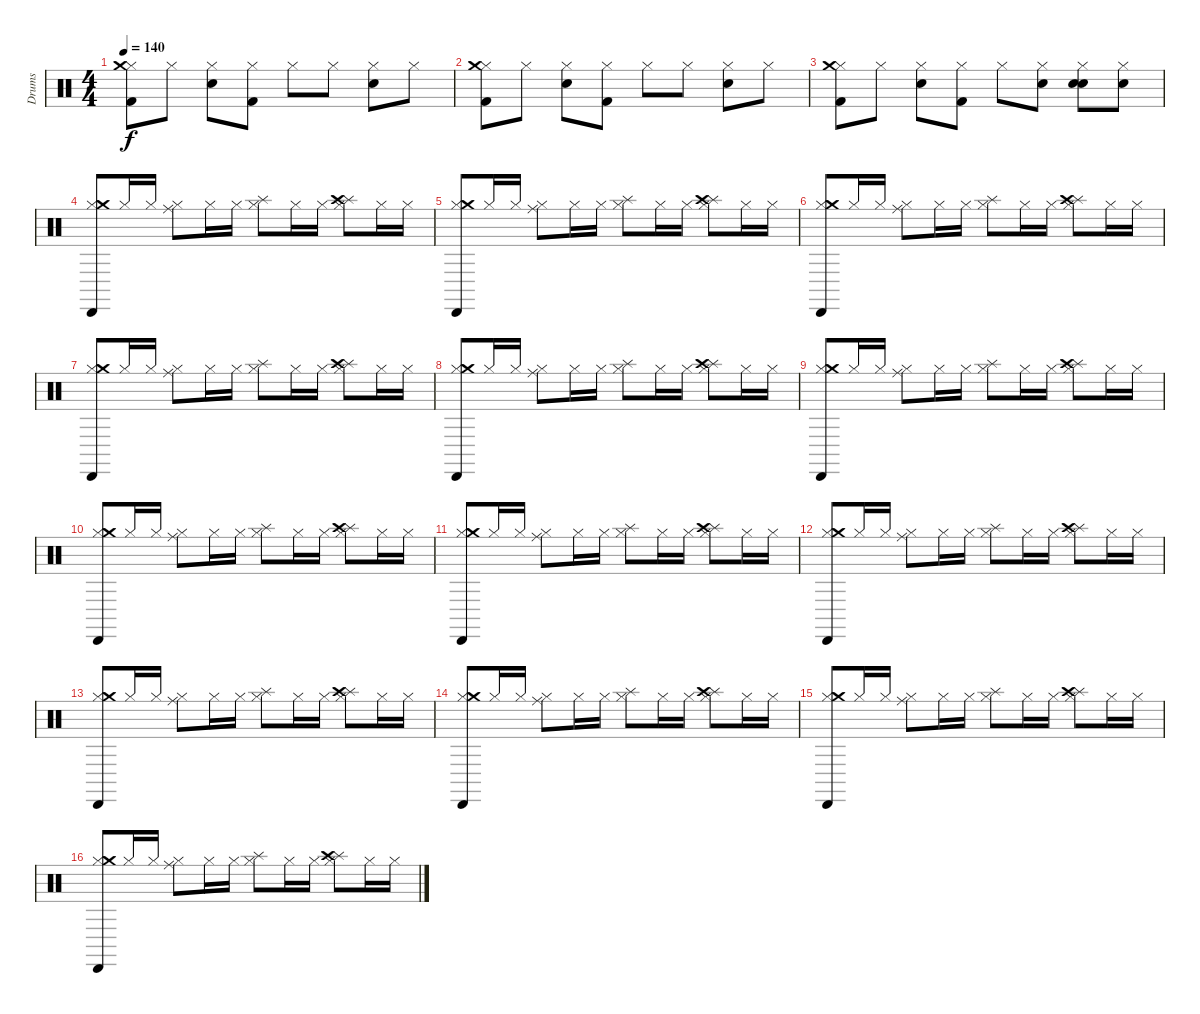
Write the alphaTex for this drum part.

\track ("Drums" "Drums") {instrument percussion}
\staff {score}
\articulation defaults
\ts (4 4)
\tempo 140
\clef neutral
\ks c
("Hi-Hat (closed)" "Kick (hit) 2" "Crash medium (hit)").8{dy f} "Hi-Hat (closed)".8 ("Hi-Hat (closed)" "Electric Snare (hit)").8 ("Hi-Hat (closed)" "Kick (hit) 2").8 "Hi-Hat (closed)".8 "Hi-Hat (closed)".8 ("Hi-Hat (closed)" "Electric Snare (hit)").8 "Hi-Hat (closed)".8 |
("Hi-Hat (closed)" "Kick (hit) 2" "Crash medium (hit)").8 "Hi-Hat (closed)".8 ("Hi-Hat (closed)" "Electric Snare (hit)").8 ("Hi-Hat (closed)" "Kick (hit) 2").8 "Hi-Hat (closed)".8 "Hi-Hat (closed)".8 ("Hi-Hat (closed)" "Electric Snare (hit)").8 "Hi-Hat (closed)".8 |
("Hi-Hat (closed)" "Kick (hit) 2" "Crash medium (hit)").8 "Hi-Hat (closed)".8 ("Hi-Hat (closed)" "Electric Snare (hit)").8 ("Hi-Hat (closed)" "Kick (hit) 2").8 "Hi-Hat (closed)".8 ("Hi-Hat (closed)" "Snare (hit) 2").8 ("Hi-Hat (closed)" "Electric Snare (hit)" "Snare (hit) 2").8 ("Hi-Hat (closed)" "Snare (hit) 2").8 |
("Hi-Hat (closed)" "Cabasa (hit)" "Crash medium (hit)").8 "Hi-Hat (closed)".16 "Hi-Hat (closed)".16 ("Hi-Hat (closed)" "Ride (middle)").8 "Hi-Hat (closed)".16 "Hi-Hat (closed)".16 ("Hi-Hat (closed)" "Splash (hit)").8 "Hi-Hat (closed)".16 "Hi-Hat (closed)".16 ("Hi-Hat (closed)" "Splash (hit)" "Crash high (hit)").8 "Hi-Hat (closed)".16 "Hi-Hat (closed)".16 |
("Hi-Hat (closed)" "Cabasa (hit)" "Crash medium (hit)").8 "Hi-Hat (closed)".16 "Hi-Hat (closed)".16 ("Hi-Hat (closed)" "Ride (middle)").8 "Hi-Hat (closed)".16 "Hi-Hat (closed)".16 ("Hi-Hat (closed)" "Splash (hit)").8 "Hi-Hat (closed)".16 "Hi-Hat (closed)".16 ("Hi-Hat (closed)" "Splash (hit)" "Crash high (hit)").8 "Hi-Hat (closed)".16 "Hi-Hat (closed)".16 |
("Hi-Hat (closed)" "Cabasa (hit)" "Crash medium (hit)").8 "Hi-Hat (closed)".16 "Hi-Hat (closed)".16 ("Hi-Hat (closed)" "Ride (middle)").8 "Hi-Hat (closed)".16 "Hi-Hat (closed)".16 ("Hi-Hat (closed)" "Splash (hit)").8 "Hi-Hat (closed)".16 "Hi-Hat (closed)".16 ("Hi-Hat (closed)" "Splash (hit)" "Crash high (hit)").8 "Hi-Hat (closed)".16 "Hi-Hat (closed)".16 |
("Hi-Hat (closed)" "Cabasa (hit)" "Crash medium (hit)").8 "Hi-Hat (closed)".16 "Hi-Hat (closed)".16 ("Hi-Hat (closed)" "Ride (middle)").8 "Hi-Hat (closed)".16 "Hi-Hat (closed)".16 ("Hi-Hat (closed)" "Splash (hit)").8 "Hi-Hat (closed)".16 "Hi-Hat (closed)".16 ("Hi-Hat (closed)" "Splash (hit)" "Crash high (hit)").8 "Hi-Hat (closed)".16 "Hi-Hat (closed)".16 |
("Hi-Hat (closed)" "Cabasa (hit)" "Crash medium (hit)").8 "Hi-Hat (closed)".16 "Hi-Hat (closed)".16 ("Hi-Hat (closed)" "Ride (middle)").8 "Hi-Hat (closed)".16 "Hi-Hat (closed)".16 ("Hi-Hat (closed)" "Splash (hit)").8 "Hi-Hat (closed)".16 "Hi-Hat (closed)".16 ("Hi-Hat (closed)" "Splash (hit)" "Crash high (hit)").8 "Hi-Hat (closed)".16 "Hi-Hat (closed)".16 |
("Hi-Hat (closed)" "Cabasa (hit)" "Crash medium (hit)").8 "Hi-Hat (closed)".16 "Hi-Hat (closed)".16 ("Hi-Hat (closed)" "Ride (middle)").8 "Hi-Hat (closed)".16 "Hi-Hat (closed)".16 ("Hi-Hat (closed)" "Splash (hit)").8 "Hi-Hat (closed)".16 "Hi-Hat (closed)".16 ("Hi-Hat (closed)" "Splash (hit)" "Crash high (hit)").8 "Hi-Hat (closed)".16 "Hi-Hat (closed)".16 |
("Hi-Hat (closed)" "Cabasa (hit)" "Crash medium (hit)").8 "Hi-Hat (closed)".16 "Hi-Hat (closed)".16 ("Hi-Hat (closed)" "Ride (middle)").8 "Hi-Hat (closed)".16 "Hi-Hat (closed)".16 ("Hi-Hat (closed)" "Splash (hit)").8 "Hi-Hat (closed)".16 "Hi-Hat (closed)".16 ("Hi-Hat (closed)" "Splash (hit)" "Crash high (hit)").8 "Hi-Hat (closed)".16 "Hi-Hat (closed)".16 |
("Hi-Hat (closed)" "Cabasa (hit)" "Crash medium (hit)").8 "Hi-Hat (closed)".16 "Hi-Hat (closed)".16 ("Hi-Hat (closed)" "Ride (middle)").8 "Hi-Hat (closed)".16 "Hi-Hat (closed)".16 ("Hi-Hat (closed)" "Splash (hit)").8 "Hi-Hat (closed)".16 "Hi-Hat (closed)".16 ("Hi-Hat (closed)" "Splash (hit)" "Crash high (hit)").8 "Hi-Hat (closed)".16 "Hi-Hat (closed)".16 |
("Hi-Hat (closed)" "Cabasa (hit)" "Crash medium (hit)").8 "Hi-Hat (closed)".16 "Hi-Hat (closed)".16 ("Hi-Hat (closed)" "Ride (middle)").8 "Hi-Hat (closed)".16 "Hi-Hat (closed)".16 ("Hi-Hat (closed)" "Splash (hit)").8 "Hi-Hat (closed)".16 "Hi-Hat (closed)".16 ("Hi-Hat (closed)" "Splash (hit)" "Crash high (hit)").8 "Hi-Hat (closed)".16 "Hi-Hat (closed)".16 |
("Hi-Hat (closed)" "Cabasa (hit)" "Crash medium (hit)").8 "Hi-Hat (closed)".16 "Hi-Hat (closed)".16 ("Hi-Hat (closed)" "Ride (middle)").8 "Hi-Hat (closed)".16 "Hi-Hat (closed)".16 ("Hi-Hat (closed)" "Splash (hit)").8 "Hi-Hat (closed)".16 "Hi-Hat (closed)".16 ("Hi-Hat (closed)" "Splash (hit)" "Crash high (hit)").8 "Hi-Hat (closed)".16 "Hi-Hat (closed)".16 |
("Hi-Hat (closed)" "Cabasa (hit)" "Crash medium (hit)").8 "Hi-Hat (closed)".16 "Hi-Hat (closed)".16 ("Hi-Hat (closed)" "Ride (middle)").8 "Hi-Hat (closed)".16 "Hi-Hat (closed)".16 ("Hi-Hat (closed)" "Splash (hit)").8 "Hi-Hat (closed)".16 "Hi-Hat (closed)".16 ("Hi-Hat (closed)" "Splash (hit)" "Crash high (hit)").8 "Hi-Hat (closed)".16 "Hi-Hat (closed)".16 |
("Hi-Hat (closed)" "Cabasa (hit)" "Crash medium (hit)").8 "Hi-Hat (closed)".16 "Hi-Hat (closed)".16 ("Hi-Hat (closed)" "Ride (middle)").8 "Hi-Hat (closed)".16 "Hi-Hat (closed)".16 ("Hi-Hat (closed)" "Splash (hit)").8 "Hi-Hat (closed)".16 "Hi-Hat (closed)".16 ("Hi-Hat (closed)" "Splash (hit)" "Crash high (hit)").8 "Hi-Hat (closed)".16 "Hi-Hat (closed)".16 |
("Hi-Hat (closed)" "Cabasa (hit)" "Crash medium (hit)").8 "Hi-Hat (closed)".16 "Hi-Hat (closed)".16 ("Hi-Hat (closed)" "Ride (middle)").8 "Hi-Hat (closed)".16 "Hi-Hat (closed)".16 ("Hi-Hat (closed)" "Splash (hit)").8 "Hi-Hat (closed)".16 "Hi-Hat (closed)".16 ("Hi-Hat (closed)" "Splash (hit)" "Crash high (hit)").8 "Hi-Hat (closed)".16 "Hi-Hat (closed)".16
